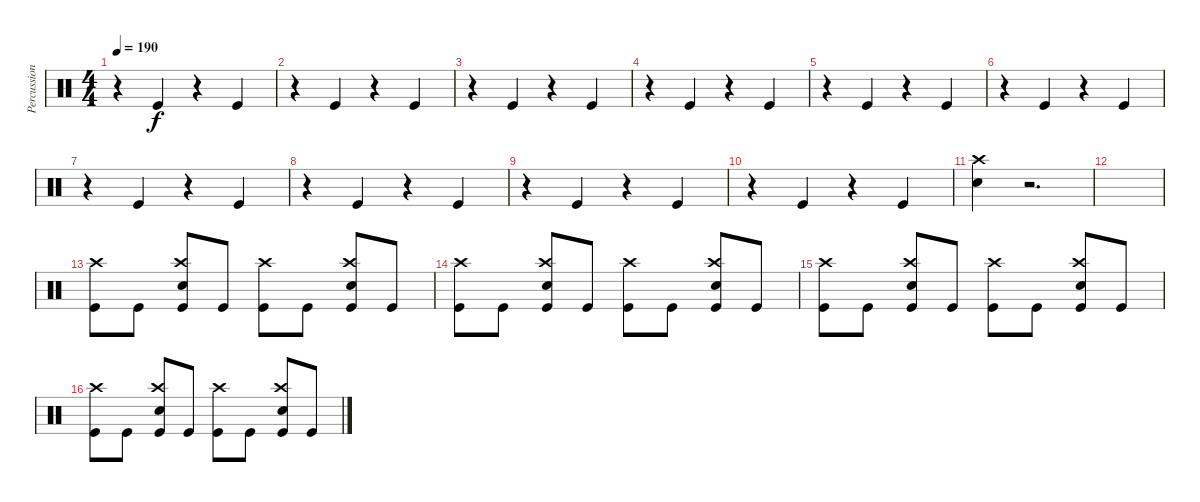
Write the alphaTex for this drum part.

\track ("Percussion" "Percussion") {instrument percussion}
\staff {score}
\articulation defaults
\ts (4 4)
\tempo 190
\clef neutral
\ks c
r.4{dy f} "Kick (hit)".4 r.4 "Kick (hit)".4 |
r.4 "Kick (hit)".4 r.4 "Kick (hit)".4 |
r.4 "Kick (hit)".4 r.4 "Kick (hit)".4 |
r.4 "Kick (hit)".4 r.4 "Kick (hit)".4 |
r.4 "Kick (hit)".4 r.4 "Kick (hit)".4 |
r.4 "Kick (hit)".4 r.4 "Kick (hit)".4 |
r.4 "Kick (hit)".4 r.4 "Kick (hit)".4 |
r.4 "Kick (hit)".4 r.4 "Kick (hit)".4 |
r.4 "Kick (hit)".4 r.4 "Kick (hit)".4 |
r.4 "Kick (hit)".4 r.4 "Kick (hit)".4 |
("Crash high (hit)" "Electric Snare (hit)").4 r.2{d} |
|
("Kick (hit)" "Crash high (hit)").8 "Kick (hit)".8 ("Kick (hit)" "Electric Snare (hit)" "Crash high (hit)").8 "Kick (hit)".8 ("Kick (hit)" "Crash high (hit)").8 "Kick (hit)".8 ("Kick (hit)" "Electric Snare (hit)" "Crash high (hit)").8 "Kick (hit)".8 |
("Kick (hit)" "Crash high (hit)").8 "Kick (hit)".8 ("Kick (hit)" "Electric Snare (hit)" "Crash high (hit)").8 "Kick (hit)".8 ("Kick (hit)" "Crash high (hit)").8 "Kick (hit)".8 ("Kick (hit)" "Electric Snare (hit)" "Crash high (hit)").8 "Kick (hit)".8 |
("Kick (hit)" "Crash high (hit)").8 "Kick (hit)".8 ("Kick (hit)" "Electric Snare (hit)" "Crash high (hit)").8 "Kick (hit)".8 ("Kick (hit)" "Crash high (hit)").8 "Kick (hit)".8 ("Kick (hit)" "Electric Snare (hit)" "Crash high (hit)").8 "Kick (hit)".8 |
("Kick (hit)" "Crash high (hit)").8 "Kick (hit)".8 ("Kick (hit)" "Electric Snare (hit)" "Crash high (hit)").8 "Kick (hit)".8 ("Kick (hit)" "Crash high (hit)").8 "Kick (hit)".8 ("Kick (hit)" "Electric Snare (hit)" "Crash high (hit)").8 "Kick (hit)".8
